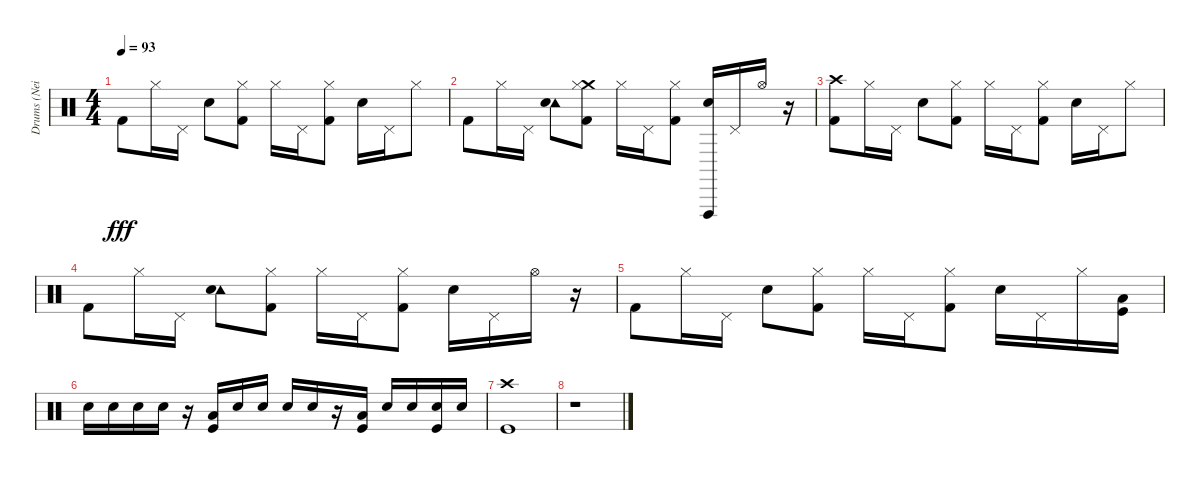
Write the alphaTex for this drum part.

\track ("Drums (Neil)" "Drums (Nei") {instrument percussion}
\staff {score}
\articulation defaults
\ts (4 4)
\tempo 93
\clef neutral
\ks c "Kick (hit) 2".8{dy fff} "Hi-Hat (closed)".16 "Pedal Hi-Hat (hit)".16 "Electric Snare (hit)".8
("Kick (hit) 2" "Hi-Hat (closed)").8 "Hi-Hat (closed)".16 "Pedal Hi-Hat (hit)".16 ("Kick (hit) 2" "Hi-Hat (closed)").8 "Electric Snare (hit)".16 "Pedal Hi-Hat (hit)".16 "Hi-Hat (closed)".8 |
"Kick (hit) 2".8 "Hi-Hat (closed)".16 "Pedal Hi-Hat (hit)".16 ("Tambourine (hit)" "Electric Snare (hit)").8 ("Crash medium (hit)" "Hi-Hat (closed)" "Kick (hit) 2").8 "Hi-Hat (closed)".16 "Pedal Hi-Hat (hit)".16 ("Kick (hit) 2" "Hi-Hat (closed)").8 ("Vibraslap (hit)" "Electric Snare (hit)").16 "Pedal Hi-Hat (hit)".16 "Hi-Hat (open)".16 r.16 |
("Crash high (hit)" "Kick (hit) 2").8 "Hi-Hat (closed)".16 "Pedal Hi-Hat (hit)".16 "Electric Snare (hit)".8 ("Kick (hit) 2" "Hi-Hat (closed)").8 "Hi-Hat (closed)".16 "Pedal Hi-Hat (hit)".16 ("Kick (hit) 2" "Hi-Hat (closed)").8 "Electric Snare (hit)".16 "Pedal Hi-Hat (hit)".16 "Hi-Hat (closed)".8 |
"Kick (hit) 2".8 "Hi-Hat (closed)".16 "Pedal Hi-Hat (hit)".16 ("Tambourine (hit)" "Electric Snare (hit)").8 ("Hi-Hat (closed)" "Kick (hit) 2").8 "Hi-Hat (closed)".16 "Pedal Hi-Hat (hit)".16 ("Hi-Hat (closed)" "Kick (hit) 2").8 "Electric Snare (hit)".16 "Pedal Hi-Hat (hit)".16 "Hi-Hat (open)".16 r.16 |
"Kick (hit) 2".8 "Hi-Hat (closed)".16 "Pedal Hi-Hat (hit)".16 "Electric Snare (hit)".8 ("Kick (hit) 2" "Hi-Hat (closed)").8 "Hi-Hat (closed)".16 "Pedal Hi-Hat (hit)".16 ("Hi-Hat (closed)" "Kick (hit) 2").8 "Electric Snare (hit)".16 "Pedal Hi-Hat (hit)".16 "Hi-Hat (closed)".16 ("Low Floor Tom (hit)" "Kick (hit)").16 |
"Electric Snare (hit)".16 "Electric Snare (hit)".16 "Electric Snare (hit)".16 "Electric Snare (hit)".16 r.16 ("Low Floor Tom (hit)" "Kick (hit)").16 "Electric Snare (hit)".16 "Electric Snare (hit)".16 "Electric Snare (hit)".16 "Electric Snare (hit)".16 r.16 ("Low Floor Tom (hit)" "Kick (hit)").16 "Electric Snare (hit)".16 "Electric Snare (hit)".16 ("Kick (hit)" "Electric Snare (hit)").16 "Electric Snare (hit)".16 |
("Kick (hit)" "Crash high (hit)").1 |
r.1
